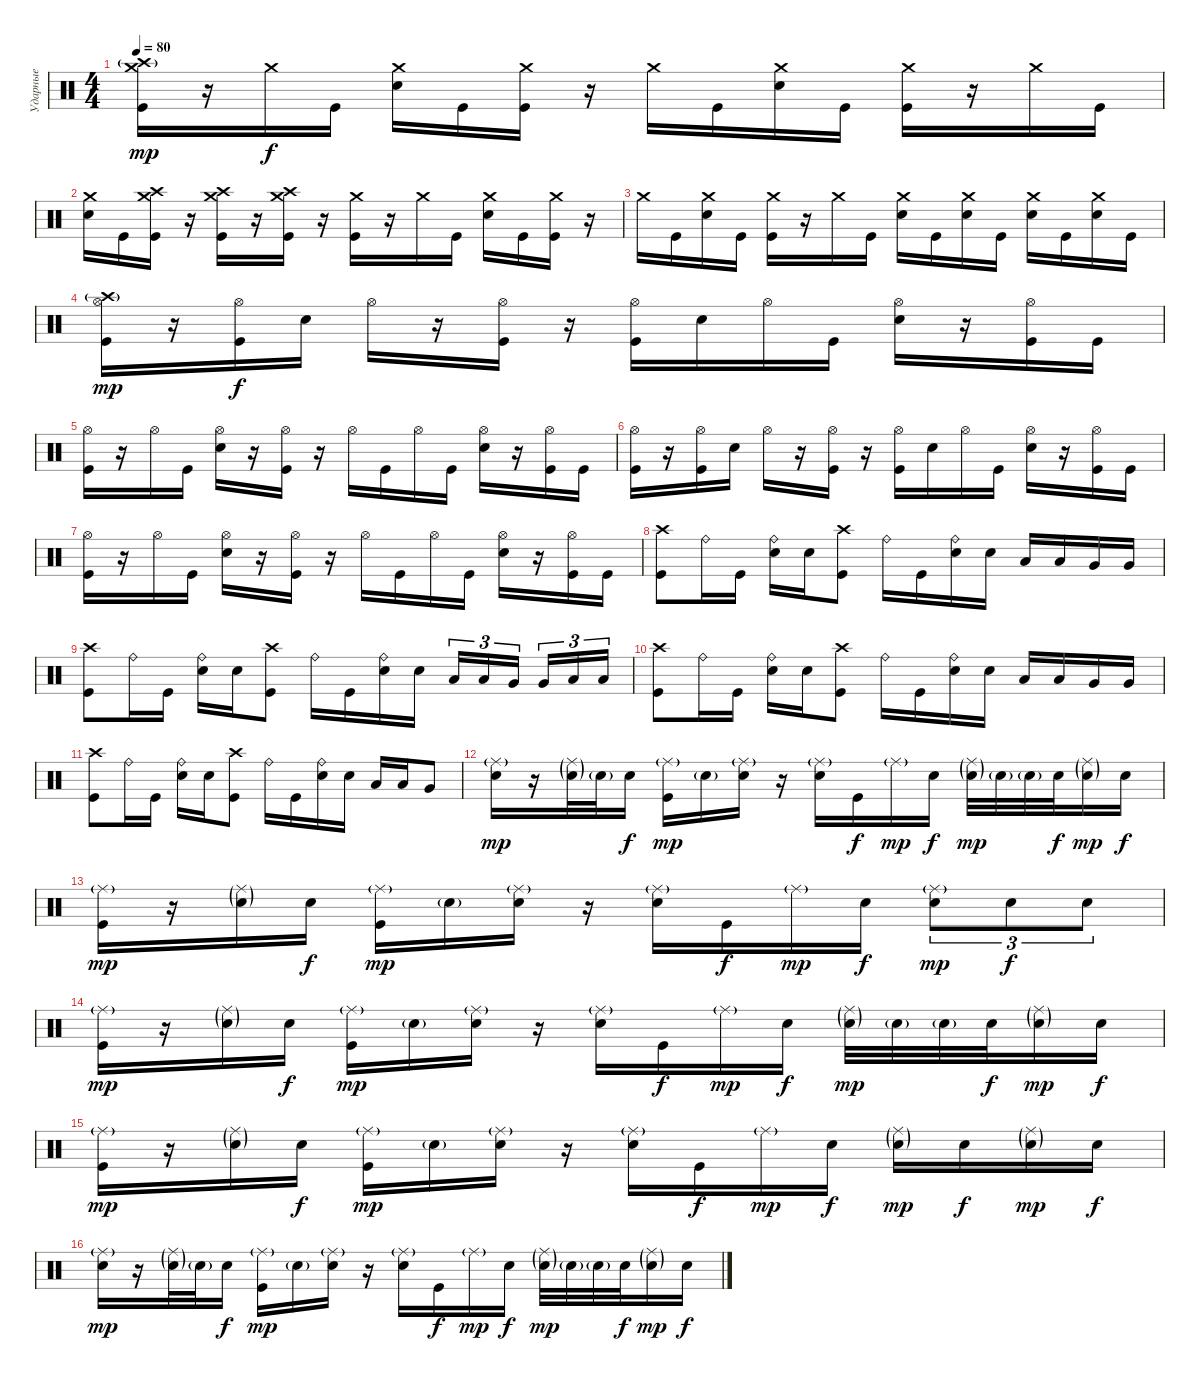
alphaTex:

\track ("Ударные" "Ударные") {instrument percussion}
\staff {score}
\articulation defaults
\ts (4 4)
\tempo 80
\clef neutral
\ks c
("Crash high (hit)"{g} "Crash medium (hit)" "Kick (hit)").16{dy mp} r.16 "Crash medium (hit)".16{dy f} "Kick (hit)".16 ("Crash medium (hit)" "Electric Snare (hit)").16 "Kick (hit)".16 ("Crash medium (hit)" "Kick (hit)").16 r.16 "Crash medium (hit)".16 "Kick (hit)".16 ("Crash medium (hit)" "Electric Snare (hit)").16 "Kick (hit)".16 ("Crash medium (hit)" "Kick (hit)").16 r.16 "Crash medium (hit)".16 "Kick (hit)".16 |
("Crash medium (hit)" "Electric Snare (hit)").16 "Kick (hit)".16 ("Crash high (hit)" "Crash medium (hit)" "Kick (hit)").16 r.16 ("Crash high (hit)" "Crash medium (hit)" "Kick (hit)").16 r.16 ("Crash high (hit)" "Crash medium (hit)" "Kick (hit)").16 r.16 ("Crash medium (hit)" "Kick (hit)").16 r.16 "Crash medium (hit)".16 "Kick (hit)".16 ("Crash medium (hit)" "Electric Snare (hit)").16 "Kick (hit)".16 ("Crash medium (hit)" "Kick (hit)").16 r.16 |
"Crash medium (hit)".16 "Kick (hit)".16 ("Crash medium (hit)" "Electric Snare (hit)").16 "Kick (hit)".16 ("Crash medium (hit)" "Kick (hit)").16 r.16 "Crash medium (hit)".16 "Kick (hit)".16 ("Crash medium (hit)" "Electric Snare (hit)").16 "Kick (hit)".16 ("Crash medium (hit)" "Electric Snare (hit)").16 "Kick (hit)".16 ("Crash medium (hit)" "Electric Snare (hit)").16 "Kick (hit)".16 ("Crash medium (hit)" "Electric Snare (hit)").16 "Kick (hit)".16 |
("Crash high (hit)"{g} "Hi-Hat (open)" "Kick (hit)").16{dy mp} r.16 ("Hi-Hat (open)" "Kick (hit)").16{dy f} "Electric Snare (hit)".16 "Hi-Hat (open)".16 r.16 ("Hi-Hat (open)" "Kick (hit)").16 r.16 ("Hi-Hat (open)" "Kick (hit)").16 "Electric Snare (hit)".16 "Hi-Hat (open)".16 "Kick (hit)".16 ("Hi-Hat (open)" "Electric Snare (hit)").16 r.16 ("Hi-Hat (open)" "Kick (hit)").16 "Kick (hit)".16 |
("Hi-Hat (open)" "Kick (hit)").16 r.16 "Hi-Hat (open)".16 "Kick (hit)".16 ("Hi-Hat (open)" "Electric Snare (hit)").16 r.16 ("Hi-Hat (open)" "Kick (hit)").16 r.16 "Hi-Hat (open)".16 "Kick (hit)".16 "Hi-Hat (open)".16 "Kick (hit)".16 ("Hi-Hat (open)" "Electric Snare (hit)").16 r.16 ("Hi-Hat (open)" "Kick (hit)").16 "Kick (hit)".16 |
("Hi-Hat (open)" "Kick (hit)").16 r.16 ("Hi-Hat (open)" "Kick (hit)").16 "Electric Snare (hit)".16 "Hi-Hat (open)".16 r.16 ("Hi-Hat (open)" "Kick (hit)").16 r.16 ("Hi-Hat (open)" "Kick (hit)").16 "Electric Snare (hit)".16 "Hi-Hat (open)".16 "Kick (hit)".16 ("Hi-Hat (open)" "Electric Snare (hit)").16 r.16 ("Hi-Hat (open)" "Kick (hit)").16 "Kick (hit)".16 |
("Hi-Hat (open)" "Kick (hit)").16 r.16 "Hi-Hat (open)".16 "Kick (hit)".16 ("Hi-Hat (open)" "Electric Snare (hit)").16 r.16 ("Hi-Hat (open)" "Kick (hit)").16 r.16 "Hi-Hat (open)".16 "Kick (hit)".16 "Hi-Hat (open)".16 "Kick (hit)".16 ("Hi-Hat (open)" "Electric Snare (hit)").16 r.16 ("Hi-Hat (open)" "Kick (hit)").16 "Kick (hit)".16 |
("Crash high (hit)" "Kick (hit)").8 "Ride (bell)".16 "Kick (hit)".16 ("Electric Snare (hit)" "Ride (bell)").16 "Electric Snare (hit)".16 ("Crash high (hit)" "Kick (hit)").8 "Ride (bell)".16 "Kick (hit)".16 ("Electric Snare (hit)" "Ride (bell)").16 "Electric Snare (hit)".16 "Low Tom (hit)".16 "Low Tom (hit)".16 "Very Low Tom (hit)".16 "Very Low Tom (hit)".16 |
("Crash high (hit)" "Kick (hit)").8 "Ride (bell)".16 "Kick (hit)".16 ("Electric Snare (hit)" "Ride (bell)").16 "Electric Snare (hit)".16 ("Crash high (hit)" "Kick (hit)").8 "Ride (bell)".16 "Kick (hit)".16 ("Electric Snare (hit)" "Ride (bell)").16 "Electric Snare (hit)".16 "Low Tom (hit)".16{tu (3 2)} "Low Tom (hit)".16{tu (3 2)} "Very Low Tom (hit)".16{tu (3 2) beam splitsecondary} "Very Low Tom (hit)".16{tu (3 2)} "Low Floor Tom (hit)".16{tu (3 2)} "Low Floor Tom (hit)".16{tu (3 2)} |
("Crash high (hit)" "Kick (hit)").8 "Ride (bell)".16 "Kick (hit)".16 ("Electric Snare (hit)" "Ride (bell)").16 "Electric Snare (hit)".16 ("Crash high (hit)" "Kick (hit)").8 "Ride (bell)".16 "Kick (hit)".16 ("Electric Snare (hit)" "Ride (bell)").16 "Electric Snare (hit)".16 "Low Tom (hit)".16 "Low Tom (hit)".16 "Very Low Tom (hit)".16 "Very Low Tom (hit)".16 |
("Crash high (hit)" "Kick (hit)").8 "Ride (bell)".16 "Kick (hit)".16 ("Electric Snare (hit)" "Ride (bell)").16 "Electric Snare (hit)".16 ("Crash high (hit)" "Kick (hit)").8 "Ride (bell)".16 "Kick (hit)".16 ("Electric Snare (hit)" "Ride (bell)").16 "Electric Snare (hit)".16 "Low Tom (hit)".16 "Low Tom (hit)".16 "Very Low Tom (hit)".8 |
("Ride (middle)"{g} "Electric Snare (hit)").16{dy mp} r.16 ("Ride (middle)"{g} "Electric Snare (hit)"{g}).32 "Electric Snare (hit)"{g}.32 "Electric Snare (hit)".16{dy f} ("Ride (middle)"{g} "Kick (hit)").16{dy mp} "Electric Snare (hit)"{g}.16 ("Ride (middle)"{g} "Electric Snare (hit)").16 r.16 ("Ride (middle)"{g} "Electric Snare (hit)").16 "Kick (hit)".16{dy f} "Ride (middle)"{g}.16{dy mp} "Electric Snare (hit)".16{dy f} ("Ride (middle)"{g} "Electric Snare (hit)"{g}).32{dy mp} "Electric Snare (hit)"{g}.32 "Electric Snare (hit)"{g}.32 "Electric Snare (hit)".32{dy f} ("Ride (middle)"{g} "Electric Snare (hit)"{g}).16{dy mp} "Electric Snare (hit)".16{dy f} |
("Ride (middle)"{g} "Kick (hit)").16{dy mp} r.16 ("Ride (middle)"{g} "Electric Snare (hit)"{g}).16 "Electric Snare (hit)".16{dy f} ("Ride (middle)"{g} "Kick (hit)").16{dy mp} "Electric Snare (hit)"{g}.16 ("Ride (middle)"{g} "Electric Snare (hit)").16 r.16 ("Ride (middle)"{g} "Electric Snare (hit)").16 "Kick (hit)".16{dy f} "Ride (middle)"{g}.16{dy mp} "Electric Snare (hit)".16{dy f} ("Ride (middle)"{g} "Electric Snare (hit)").8{tu (3 2) dy mp} "Electric Snare (hit)".8{tu (3 2) dy f} "Electric Snare (hit)".8{tu (3 2)} |
("Ride (middle)"{g} "Kick (hit)").16{dy mp} r.16 ("Ride (middle)"{g} "Electric Snare (hit)"{g}).16 "Electric Snare (hit)".16{dy f} ("Ride (middle)"{g} "Kick (hit)").16{dy mp} "Electric Snare (hit)"{g}.16 ("Ride (middle)"{g} "Electric Snare (hit)").16 r.16 ("Ride (middle)"{g} "Electric Snare (hit)").16 "Kick (hit)".16{dy f} "Ride (middle)"{g}.16{dy mp} "Electric Snare (hit)".16{dy f} ("Ride (middle)"{g} "Electric Snare (hit)"{g}).32{dy mp} "Electric Snare (hit)"{g}.32 "Electric Snare (hit)"{g}.32 "Electric Snare (hit)".32{dy f} ("Ride (middle)"{g} "Electric Snare (hit)"{g}).16{dy mp} "Electric Snare (hit)".16{dy f} |
("Ride (middle)"{g} "Kick (hit)").16{dy mp} r.16 ("Ride (middle)"{g} "Electric Snare (hit)"{g}).16 "Electric Snare (hit)".16{dy f} ("Ride (middle)"{g} "Kick (hit)").16{dy mp} "Electric Snare (hit)"{g}.16 ("Ride (middle)"{g} "Electric Snare (hit)").16 r.16 ("Ride (middle)"{g} "Electric Snare (hit)").16 "Kick (hit)".16{dy f} "Ride (middle)"{g}.16{dy mp} "Electric Snare (hit)".16{dy f} ("Ride (middle)"{g} "Electric Snare (hit)"{g}).16{dy mp} "Electric Snare (hit)".16{dy f} ("Ride (middle)"{g} "Electric Snare (hit)"{g}).16{dy mp} "Electric Snare (hit)".16{dy f} |
("Ride (middle)"{g} "Electric Snare (hit)").16{dy mp} r.16 ("Ride (middle)"{g} "Electric Snare (hit)"{g}).32 "Electric Snare (hit)"{g}.32 "Electric Snare (hit)".16{dy f} ("Ride (middle)"{g} "Kick (hit)").16{dy mp} "Electric Snare (hit)"{g}.16 ("Ride (middle)"{g} "Electric Snare (hit)").16 r.16 ("Ride (middle)"{g} "Electric Snare (hit)").16 "Kick (hit)".16{dy f} "Ride (middle)"{g}.16{dy mp} "Electric Snare (hit)".16{dy f} ("Ride (middle)"{g} "Electric Snare (hit)"{g}).32{dy mp} "Electric Snare (hit)"{g}.32 "Electric Snare (hit)"{g}.32 "Electric Snare (hit)".32{dy f} ("Ride (middle)"{g} "Electric Snare (hit)"{g}).16{dy mp} "Electric Snare (hit)".16{dy f}
